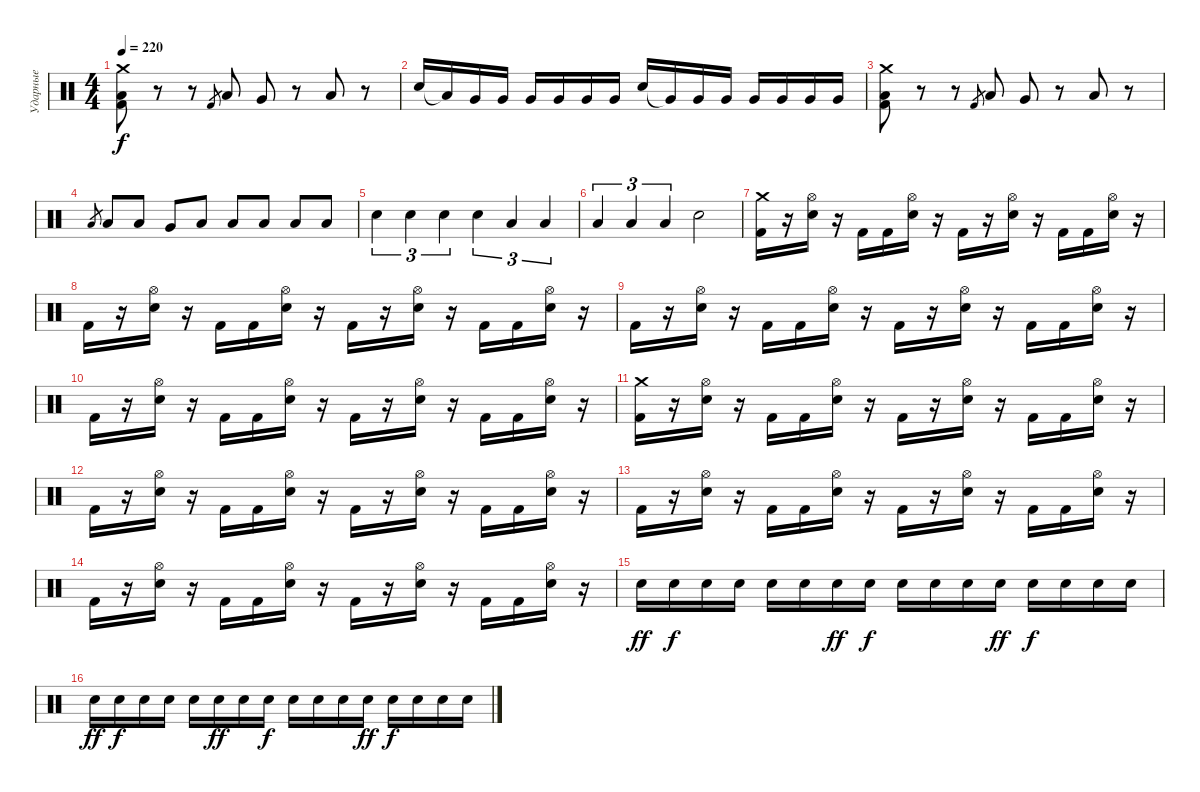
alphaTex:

\track ("Ударные" "Ударные") {instrument percussion}
\staff {score}
\articulation defaults
\ts (4 4)
\tempo 220
\clef neutral
\ks c
("Crash medium (hit)" "Low Tom (hit)" "Kick (hit) 2").8{dy f} r.8 r.8 "Kick (hit) 2".8{gr} "Low Tom (hit)".8 "Very Low Tom (hit)".8 r.8 "Low Tom (hit)".8 r.8 |
"Snare (hit) 2".16 "Low Tom (hit)"{t}.16 "Very Low Tom (hit)".16 "Very Low Tom (hit)".16 "Very Low Tom (hit)".16 "Very Low Tom (hit)".16 "Very Low Tom (hit)".16 "Very Low Tom (hit)".16 "Snare (hit) 2".16 "Very Low Tom (hit)"{t}.16 "Very Low Tom (hit)".16 "Very Low Tom (hit)".16 "Very Low Tom (hit)".16 "Very Low Tom (hit)".16 "Very Low Tom (hit)".16 "Very Low Tom (hit)".16 |
("Crash medium (hit)" "Low Tom (hit)" "Kick (hit) 2").8 r.8 r.8 "Kick (hit) 2".8{gr} "Low Tom (hit)".8 "Very Low Tom (hit)".8 r.8 "Low Tom (hit)".8 r.8 |
"Low Tom (hit)".8{gr} "Low Tom (hit)".8 "Low Tom (hit)".8 "Very Low Tom (hit)".8 "Low Tom (hit)".8 "Low Tom (hit)".8 "Low Tom (hit)".8 "Low Floor Tom (hit)".8 "Low Floor Tom (hit)".8 |
"Snare (hit) 2".4{tu (3 2)} "Snare (hit) 2".4{tu (3 2)} "Snare (hit) 2".4{tu (3 2)} "Snare (hit) 2".4{tu (3 2)} "Low Floor Tom (hit)".4{tu (3 2)} "Low Floor Tom (hit)".4{tu (3 2)} |
"Low Floor Tom (hit)".4{tu (3 2)} "Low Floor Tom (hit)".4{tu (3 2)} "Low Floor Tom (hit)".4{tu (3 2)} "Snare (hit) 2".2 |
("Crash medium (hit)" "Kick (hit) 2").16 r.16 ("Hi-Hat (open)" "Snare (hit) 2").16 r.16 "Kick (hit) 2".16 "Kick (hit) 2".16 ("Hi-Hat (open)" "Snare (hit) 2").16 r.16 "Kick (hit) 2".16 r.16 ("Hi-Hat (open)" "Snare (hit) 2").16 r.16 "Kick (hit) 2".16 "Kick (hit) 2".16 ("Hi-Hat (open)" "Snare (hit) 2").16 r.16 |
"Kick (hit) 2".16 r.16 ("Hi-Hat (open)" "Snare (hit) 2").16 r.16 "Kick (hit) 2".16 "Kick (hit) 2".16 ("Hi-Hat (open)" "Snare (hit) 2").16 r.16 "Kick (hit) 2".16 r.16 ("Hi-Hat (open)" "Snare (hit) 2").16 r.16 "Kick (hit) 2".16 "Kick (hit) 2".16 ("Hi-Hat (open)" "Snare (hit) 2").16 r.16 |
"Kick (hit) 2".16 r.16 ("Hi-Hat (open)" "Snare (hit) 2").16 r.16 "Kick (hit) 2".16 "Kick (hit) 2".16 ("Hi-Hat (open)" "Snare (hit) 2").16 r.16 "Kick (hit) 2".16 r.16 ("Hi-Hat (open)" "Snare (hit) 2").16 r.16 "Kick (hit) 2".16 "Kick (hit) 2".16 ("Hi-Hat (open)" "Snare (hit) 2").16 r.16 |
"Kick (hit) 2".16 r.16 ("Hi-Hat (open)" "Snare (hit) 2").16 r.16 "Kick (hit) 2".16 "Kick (hit) 2".16 ("Hi-Hat (open)" "Snare (hit) 2").16 r.16 "Kick (hit) 2".16 r.16 ("Hi-Hat (open)" "Snare (hit) 2").16 r.16 "Kick (hit) 2".16 "Kick (hit) 2".16 ("Hi-Hat (open)" "Snare (hit) 2").16 r.16 |
("Crash medium (hit)" "Kick (hit) 2").16 r.16 ("Hi-Hat (open)" "Snare (hit) 2").16 r.16 "Kick (hit) 2".16 "Kick (hit) 2".16 ("Hi-Hat (open)" "Snare (hit) 2").16 r.16 "Kick (hit) 2".16 r.16 ("Hi-Hat (open)" "Snare (hit) 2").16 r.16 "Kick (hit) 2".16 "Kick (hit) 2".16 ("Hi-Hat (open)" "Snare (hit) 2").16 r.16 |
"Kick (hit) 2".16 r.16 ("Hi-Hat (open)" "Snare (hit) 2").16 r.16 "Kick (hit) 2".16 "Kick (hit) 2".16 ("Hi-Hat (open)" "Snare (hit) 2").16 r.16 "Kick (hit) 2".16 r.16 ("Hi-Hat (open)" "Snare (hit) 2").16 r.16 "Kick (hit) 2".16 "Kick (hit) 2".16 ("Hi-Hat (open)" "Snare (hit) 2").16 r.16 |
"Kick (hit) 2".16 r.16 ("Hi-Hat (open)" "Snare (hit) 2").16 r.16 "Kick (hit) 2".16 "Kick (hit) 2".16 ("Hi-Hat (open)" "Snare (hit) 2").16 r.16 "Kick (hit) 2".16 r.16 ("Hi-Hat (open)" "Snare (hit) 2").16 r.16 "Kick (hit) 2".16 "Kick (hit) 2".16 ("Hi-Hat (open)" "Snare (hit) 2").16 r.16 |
"Kick (hit) 2".16 r.16 ("Hi-Hat (open)" "Snare (hit) 2").16 r.16 "Kick (hit) 2".16 "Kick (hit) 2".16 ("Hi-Hat (open)" "Snare (hit) 2").16 r.16 "Kick (hit) 2".16 r.16 ("Hi-Hat (open)" "Snare (hit) 2").16 r.16 "Kick (hit) 2".16 "Kick (hit) 2".16 ("Hi-Hat (open)" "Snare (hit) 2").16 r.16 |
"Snare (hit) 2".16{dy ff} "Snare (hit) 2".16{dy f} "Snare (hit) 2".16 "Snare (hit) 2".16 "Snare (hit) 2".16 "Snare (hit) 2".16 "Snare (hit) 2".16{dy ff} "Snare (hit) 2".16{dy f} "Snare (hit) 2".16 "Snare (hit) 2".16 "Snare (hit) 2".16 "Snare (hit) 2".16{dy ff} "Snare (hit) 2".16{dy f} "Snare (hit) 2".16 "Snare (hit) 2".16 "Snare (hit) 2".16 |
"Snare (hit) 2".16{dy ff} "Snare (hit) 2".16{dy f} "Snare (hit) 2".16 "Snare (hit) 2".16 "Snare (hit) 2".16 "Snare (hit) 2".16{dy ff} "Snare (hit) 2".16 "Snare (hit) 2".16{dy f} "Snare (hit) 2".16 "Snare (hit) 2".16 "Snare (hit) 2".16 "Snare (hit) 2".16{dy ff} "Snare (hit) 2".16{dy f} "Snare (hit) 2".16 "Snare (hit) 2".16 "Snare (hit) 2".16
